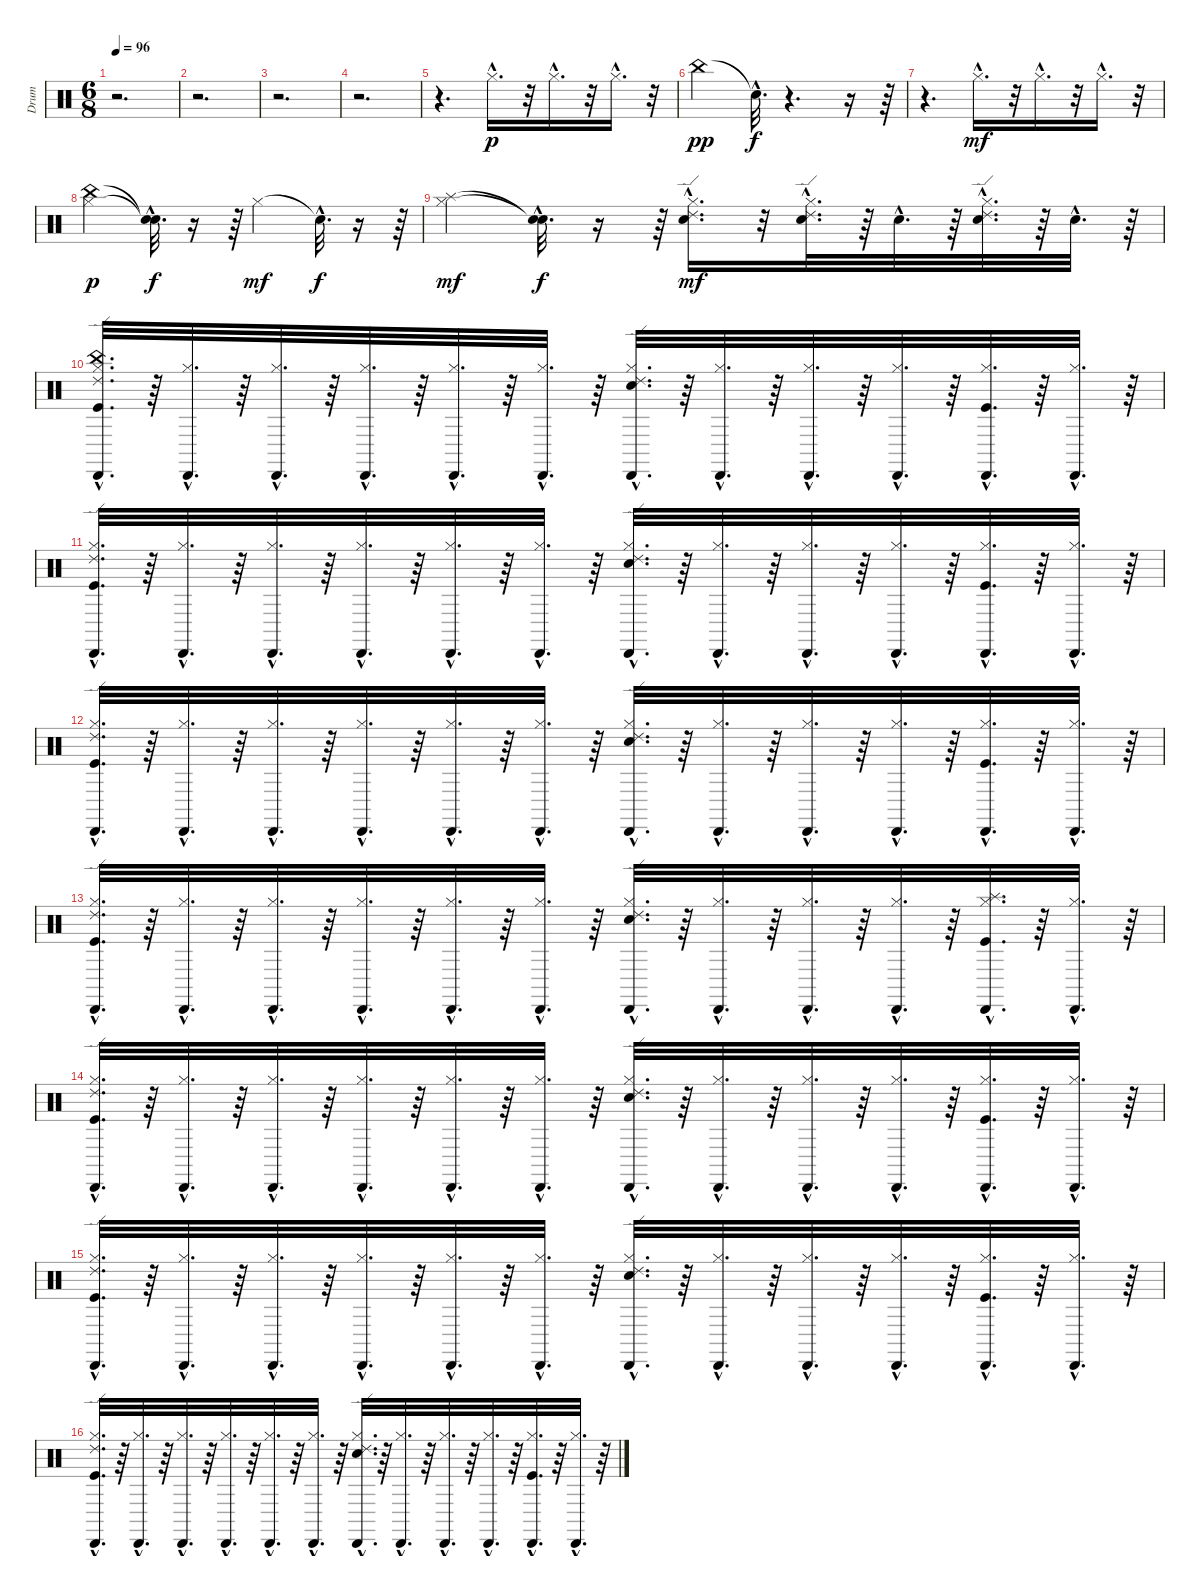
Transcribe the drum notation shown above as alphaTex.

\track ("Drum" "Drum") {instrument percussion}
\staff {score}
\articulation defaults
\ts (6 8)
\tempo 96
\clef neutral
\ks c
r.2{d dy p} |
r.2{d} |
r.2{d} |
r.2{d} |
r.4{d} "Hi-Hat (closed)"{hac}.16{d} r.32 "Hi-Hat (closed)"{hac}.16{d} r.32 "Hi-Hat (closed)"{hac}.16{d} r.32 |
"China (hit)".4{dy pp} "Snare (hit)"{hac t}.32{d dy f} r.4{d} r.16 r.64 |
r.4{d} "Hi-Hat (closed)"{hac}.16{d dy mf} r.32 "Hi-Hat (closed)"{hac}.16{d} r.32 "Hi-Hat (closed)"{hac}.16{d} r.32 |
("Hi-Hat (closed)" "China (hit)").4{dy p} ("Snare (hit)"{hac t} "Snare (hit)"{hac t}).32{d dy f} r.16 r.64 "Hi-Hat (closed)".4{dy mf} "Snare (hit)"{hac t}.32{d dy f} r.16 r.64 |
("Hi-Hat (closed)" "Splash (hit)").4{dy mf} ("Snare (hit)"{hac t} "Snare (hit)"{hac t}).32{d dy f} r.16 r.64 ("Ride (edge) 2"{hac} "Hi-Hat (closed)"{hac} "Snare (hit) 2"{hac}).16{d dy mf} r.32 ("Ride (edge) 2"{hac} "Snare (hit) 2"{hac} "Hi-Hat (closed)"{hac}).32{d} r.64 "Snare (hit) 2"{hac}.32{d} r.64 ("Ride (edge) 2"{hac} "Hi-Hat (closed)"{hac} "Snare (hit) 2"{hac}).32{d} r.64 "Snare (hit) 2"{hac}.32{d} r.64 |
("Ride (edge) 2"{hac} "Cabasa (hit)"{hac} "China (hit)"{hac} "Kick (hit)"{hac} "Hi-Hat (closed)"{hac}).32{d} r.64 ("Cabasa (hit)"{hac} "Hi-Hat (closed)"{hac}).32{d} r.64 ("Cabasa (hit)"{hac} "Hi-Hat (closed)"{hac}).32{d} r.64 ("Cabasa (hit)"{hac} "Hi-Hat (closed)"{hac}).32{d} r.64 ("Cabasa (hit)"{hac} "Hi-Hat (closed)"{hac}).32{d} r.64 ("Cabasa (hit)"{hac} "Hi-Hat (closed)"{hac}).32{d} r.64 ("Ride (edge) 2"{hac} "Cabasa (hit)"{hac} "Snare (hit) 2"{hac} "Hi-Hat (closed)"{hac}).32{d} r.64 ("Cabasa (hit)"{hac} "Hi-Hat (closed)"{hac}).32{d} r.64 ("Cabasa (hit)"{hac} "Hi-Hat (closed)"{hac}).32{d} r.64 ("Cabasa (hit)"{hac} "Hi-Hat (closed)"{hac}).32{d} r.64 ("Kick (hit)"{hac} "Cabasa (hit)"{hac} "Hi-Hat (closed)"{hac}).32{d} r.64 ("Cabasa (hit)"{hac} "Hi-Hat (closed)"{hac}).32{d} r.64 |
("Ride (edge) 2"{hac} "Cabasa (hit)"{hac} "Hi-Hat (closed)"{hac} "Kick (hit)"{hac}).32{d} r.64 ("Cabasa (hit)"{hac} "Hi-Hat (closed)"{hac}).32{d} r.64 ("Cabasa (hit)"{hac} "Hi-Hat (closed)"{hac}).32{d} r.64 ("Cabasa (hit)"{hac} "Hi-Hat (closed)"{hac}).32{d} r.64 ("Cabasa (hit)"{hac} "Hi-Hat (closed)"{hac}).32{d} r.64 ("Cabasa (hit)"{hac} "Hi-Hat (closed)"{hac}).32{d} r.64 ("Ride (edge) 2"{hac} "Cabasa (hit)"{hac} "Hi-Hat (closed)"{hac} "Snare (hit) 2"{hac}).32{d} r.64 ("Cabasa (hit)"{hac} "Hi-Hat (closed)"{hac}).32{d} r.64 ("Cabasa (hit)"{hac} "Hi-Hat (closed)"{hac}).32{d} r.64 ("Cabasa (hit)"{hac} "Hi-Hat (closed)"{hac}).32{d} r.64 ("Kick (hit)"{hac} "Cabasa (hit)"{hac} "Hi-Hat (closed)"{hac}).32{d} r.64 ("Cabasa (hit)"{hac} "Hi-Hat (closed)"{hac}).32{d} r.64 |
("Kick (hit)"{hac} "Hi-Hat (closed)"{hac} "Cabasa (hit)"{hac} "Ride (edge) 2"{hac}).32{d} r.64 ("Hi-Hat (closed)"{hac} "Cabasa (hit)"{hac}).32{d} r.64 ("Hi-Hat (closed)"{hac} "Cabasa (hit)"{hac}).32{d} r.64 ("Hi-Hat (closed)"{hac} "Cabasa (hit)"{hac}).32{d} r.64 ("Hi-Hat (closed)"{hac} "Cabasa (hit)"{hac}).32{d} r.64 ("Hi-Hat (closed)"{hac} "Cabasa (hit)"{hac}).32{d} r.64 ("Snare (hit) 2"{hac} "Hi-Hat (closed)"{hac} "Cabasa (hit)"{hac} "Ride (edge) 2"{hac}).32{d} r.64 ("Hi-Hat (closed)"{hac} "Cabasa (hit)"{hac}).32{d} r.64 ("Hi-Hat (closed)"{hac} "Cabasa (hit)"{hac}).32{d} r.64 ("Hi-Hat (closed)"{hac} "Cabasa (hit)"{hac}).32{d} r.64 ("Kick (hit)"{hac} "Hi-Hat (closed)"{hac} "Cabasa (hit)"{hac}).32{d} r.64 ("Hi-Hat (closed)"{hac} "Cabasa (hit)"{hac}).32{d} r.64 |
("Kick (hit)"{hac} "Hi-Hat (closed)"{hac} "Cabasa (hit)"{hac} "Ride (edge) 2"{hac}).32{d} r.64 ("Hi-Hat (closed)"{hac} "Cabasa (hit)"{hac}).32{d} r.64 ("Hi-Hat (closed)"{hac} "Cabasa (hit)"{hac}).32{d} r.64 ("Hi-Hat (closed)"{hac} "Cabasa (hit)"{hac}).32{d} r.64 ("Hi-Hat (closed)"{hac} "Cabasa (hit)"{hac}).32{d} r.64 ("Hi-Hat (closed)"{hac} "Cabasa (hit)"{hac}).32{d} r.64 ("Snare (hit) 2"{hac} "Hi-Hat (closed)"{hac} "Cabasa (hit)"{hac} "Ride (edge) 2"{hac}).32{d} r.64 ("Hi-Hat (closed)"{hac} "Cabasa (hit)"{hac}).32{d} r.64 ("Hi-Hat (closed)"{hac} "Cabasa (hit)"{hac}).32{d} r.64 ("Hi-Hat (closed)"{hac} "Cabasa (hit)"{hac}).32{d} r.64 ("Kick (hit)"{hac} "Splash (hit)"{hac} "Hi-Hat (closed)"{hac} "Cabasa (hit)"{hac}).32{d} r.64 ("Hi-Hat (closed)"{hac} "Cabasa (hit)"{hac}).32{d} r.64 |
("Hi-Hat (closed)"{hac} "Kick (hit)"{hac} "Cabasa (hit)"{hac} "Ride (edge) 2"{hac}).32{d} r.64 ("Hi-Hat (closed)"{hac} "Cabasa (hit)"{hac}).32{d} r.64 ("Hi-Hat (closed)"{hac} "Cabasa (hit)"{hac}).32{d} r.64 ("Hi-Hat (closed)"{hac} "Cabasa (hit)"{hac}).32{d} r.64 ("Hi-Hat (closed)"{hac} "Cabasa (hit)"{hac}).32{d} r.64 ("Hi-Hat (closed)"{hac} "Cabasa (hit)"{hac}).32{d} r.64 ("Hi-Hat (closed)"{hac} "Snare (hit) 2"{hac} "Cabasa (hit)"{hac} "Ride (edge) 2"{hac}).32{d} r.64 ("Hi-Hat (closed)"{hac} "Cabasa (hit)"{hac}).32{d} r.64 ("Hi-Hat (closed)"{hac} "Cabasa (hit)"{hac}).32{d} r.64 ("Hi-Hat (closed)"{hac} "Cabasa (hit)"{hac}).32{d} r.64 ("Hi-Hat (closed)"{hac} "Cabasa (hit)"{hac} "Kick (hit)"{hac}).32{d} r.64 ("Hi-Hat (closed)"{hac} "Cabasa (hit)"{hac}).32{d} r.64 |
("Kick (hit)"{hac} "Hi-Hat (closed)"{hac} "Cabasa (hit)"{hac} "Ride (edge) 2"{hac}).32{d} r.64 ("Hi-Hat (closed)"{hac} "Cabasa (hit)"{hac}).32{d} r.64 ("Hi-Hat (closed)"{hac} "Cabasa (hit)"{hac}).32{d} r.64 ("Hi-Hat (closed)"{hac} "Cabasa (hit)"{hac}).32{d} r.64 ("Hi-Hat (closed)"{hac} "Cabasa (hit)"{hac}).32{d} r.64 ("Hi-Hat (closed)"{hac} "Cabasa (hit)"{hac}).32{d} r.64 ("Snare (hit) 2"{hac} "Hi-Hat (closed)"{hac} "Cabasa (hit)"{hac} "Ride (edge) 2"{hac}).32{d} r.64 ("Hi-Hat (closed)"{hac} "Cabasa (hit)"{hac}).32{d} r.64 ("Hi-Hat (closed)"{hac} "Cabasa (hit)"{hac}).32{d} r.64 ("Hi-Hat (closed)"{hac} "Cabasa (hit)"{hac}).32{d} r.64 ("Hi-Hat (closed)"{hac} "Cabasa (hit)"{hac} "Kick (hit)"{hac}).32{d} r.64 ("Hi-Hat (closed)"{hac} "Cabasa (hit)"{hac}).32{d} r.64 |
("Ride (edge) 2"{hac} "Cabasa (hit)"{hac} "Hi-Hat (closed)"{hac} "Kick (hit)"{hac}).32{d} r.64 ("Cabasa (hit)"{hac} "Hi-Hat (closed)"{hac}).32{d} r.64 ("Cabasa (hit)"{hac} "Hi-Hat (closed)"{hac}).32{d} r.64 ("Cabasa (hit)"{hac} "Hi-Hat (closed)"{hac}).32{d} r.64 ("Cabasa (hit)"{hac} "Hi-Hat (closed)"{hac}).32{d} r.64 ("Cabasa (hit)"{hac} "Hi-Hat (closed)"{hac}).32{d} r.64 ("Ride (edge) 2"{hac} "Cabasa (hit)"{hac} "Hi-Hat (closed)"{hac} "Snare (hit) 2"{hac}).32{d} r.64 ("Cabasa (hit)"{hac} "Hi-Hat (closed)"{hac}).32{d} r.64 ("Cabasa (hit)"{hac} "Hi-Hat (closed)"{hac}).32{d} r.64 ("Cabasa (hit)"{hac} "Hi-Hat (closed)"{hac}).32{d} r.64 ("Cabasa (hit)"{hac} "Hi-Hat (closed)"{hac} "Kick (hit)"{hac}).32{d} r.64 ("Cabasa (hit)"{hac} "Hi-Hat (closed)"{hac}).32{d} r.64
